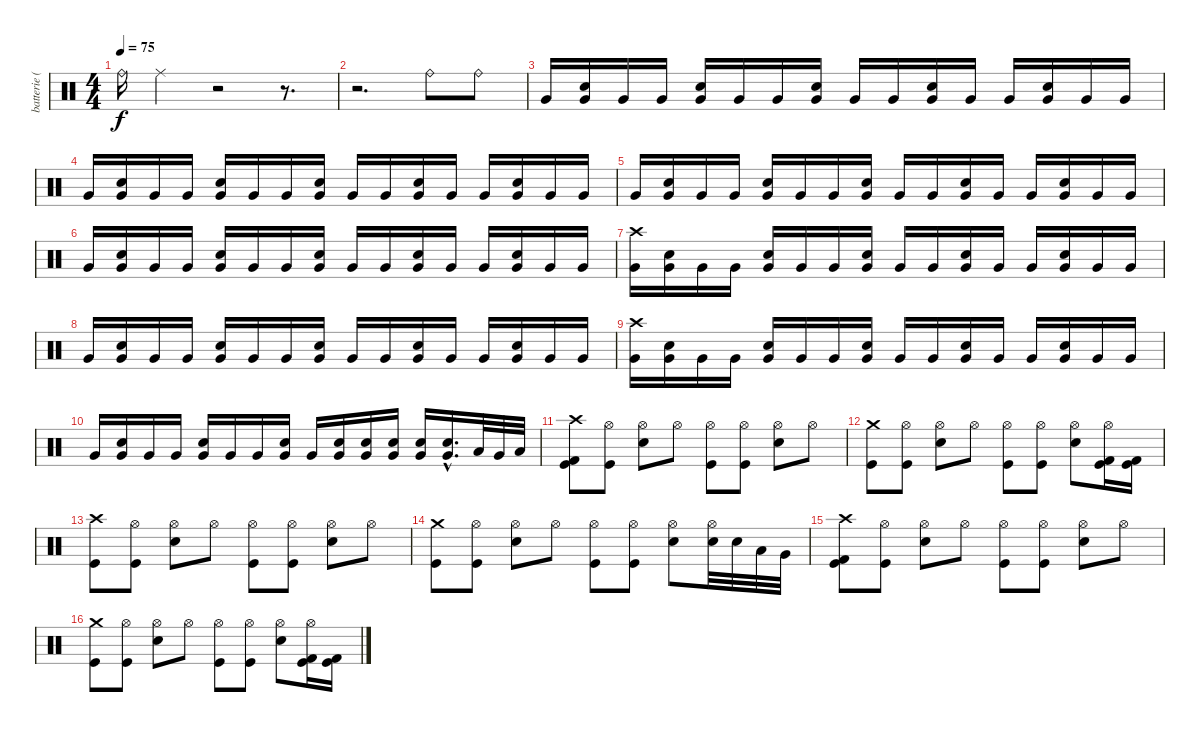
\track ("batterie ( fabien )" "batterie (") {instrument percussion}
\staff {score}
\articulation defaults
\ts (4 4)
\tempo 75
\clef neutral
\ks c "Ride (bell)".16{dy f} "Ride (middle)".4
r.2 r.8{d} |
r.2{d} "Ride (bell)".8 "Ride (bell)".8 |
"Very Low Tom (hit)".16 ("Very Low Tom (hit)" "Snare (hit) 2").16 "Very Low Tom (hit)".16 "Very Low Tom (hit)".16 ("Very Low Tom (hit)" "Snare (hit) 2").16 "Very Low Tom (hit)".16 "Very Low Tom (hit)".16 ("Very Low Tom (hit)" "Snare (hit) 2").16 "Very Low Tom (hit)".16 "Very Low Tom (hit)".16 ("Very Low Tom (hit)" "Snare (hit) 2").16 "Very Low Tom (hit)".16 "Very Low Tom (hit)".16 ("Very Low Tom (hit)" "Snare (hit) 2").16 "Very Low Tom (hit)".16 "Very Low Tom (hit)".16 |
"Very Low Tom (hit)".16 ("Very Low Tom (hit)" "Snare (hit) 2").16 "Very Low Tom (hit)".16 "Very Low Tom (hit)".16 ("Very Low Tom (hit)" "Snare (hit) 2").16 "Very Low Tom (hit)".16 "Very Low Tom (hit)".16 ("Very Low Tom (hit)" "Snare (hit) 2").16 "Very Low Tom (hit)".16 "Very Low Tom (hit)".16 ("Very Low Tom (hit)" "Snare (hit) 2").16 "Very Low Tom (hit)".16 "Very Low Tom (hit)".16 ("Very Low Tom (hit)" "Snare (hit) 2").16 "Very Low Tom (hit)".16 "Very Low Tom (hit)".16 |
"Very Low Tom (hit)".16 ("Very Low Tom (hit)" "Snare (hit) 2").16 "Very Low Tom (hit)".16 "Very Low Tom (hit)".16 ("Very Low Tom (hit)" "Snare (hit) 2").16 "Very Low Tom (hit)".16 "Very Low Tom (hit)".16 ("Very Low Tom (hit)" "Snare (hit) 2").16 "Very Low Tom (hit)".16 "Very Low Tom (hit)".16 ("Very Low Tom (hit)" "Snare (hit) 2").16 "Very Low Tom (hit)".16 "Very Low Tom (hit)".16 ("Very Low Tom (hit)" "Snare (hit) 2").16 "Very Low Tom (hit)".16 "Very Low Tom (hit)".16 |
"Very Low Tom (hit)".16 ("Very Low Tom (hit)" "Snare (hit) 2").16 "Very Low Tom (hit)".16 "Very Low Tom (hit)".16 ("Very Low Tom (hit)" "Snare (hit) 2").16 "Very Low Tom (hit)".16 "Very Low Tom (hit)".16 ("Very Low Tom (hit)" "Snare (hit) 2").16 "Very Low Tom (hit)".16 "Very Low Tom (hit)".16 ("Very Low Tom (hit)" "Snare (hit) 2").16 "Very Low Tom (hit)".16 "Very Low Tom (hit)".16 ("Very Low Tom (hit)" "Snare (hit) 2").16 "Very Low Tom (hit)".16 "Very Low Tom (hit)".16 |
("Crash high (hit)" "Very Low Tom (hit)").16 ("Very Low Tom (hit)" "Snare (hit) 2").16 "Very Low Tom (hit)".16 "Very Low Tom (hit)".16 ("Very Low Tom (hit)" "Snare (hit) 2").16 "Very Low Tom (hit)".16 "Very Low Tom (hit)".16 ("Very Low Tom (hit)" "Snare (hit) 2").16 "Very Low Tom (hit)".16 "Very Low Tom (hit)".16 ("Very Low Tom (hit)" "Snare (hit) 2").16 "Very Low Tom (hit)".16 "Very Low Tom (hit)".16 ("Very Low Tom (hit)" "Snare (hit) 2").16 "Very Low Tom (hit)".16 "Very Low Tom (hit)".16 |
"Very Low Tom (hit)".16 ("Very Low Tom (hit)" "Snare (hit) 2").16 "Very Low Tom (hit)".16 "Very Low Tom (hit)".16 ("Very Low Tom (hit)" "Snare (hit) 2").16 "Very Low Tom (hit)".16 "Very Low Tom (hit)".16 ("Very Low Tom (hit)" "Snare (hit) 2").16 "Very Low Tom (hit)".16 "Very Low Tom (hit)".16 ("Very Low Tom (hit)" "Snare (hit) 2").16 "Very Low Tom (hit)".16 "Very Low Tom (hit)".16 ("Very Low Tom (hit)" "Snare (hit) 2").16 "Very Low Tom (hit)".16 "Very Low Tom (hit)".16 |
("Crash high (hit)" "Very Low Tom (hit)").16 ("Very Low Tom (hit)" "Snare (hit) 2").16 "Very Low Tom (hit)".16 "Very Low Tom (hit)".16 ("Very Low Tom (hit)" "Snare (hit) 2").16 "Very Low Tom (hit)".16 "Very Low Tom (hit)".16 ("Very Low Tom (hit)" "Snare (hit) 2").16 "Very Low Tom (hit)".16 "Very Low Tom (hit)".16 ("Very Low Tom (hit)" "Snare (hit) 2").16 "Very Low Tom (hit)".16 "Very Low Tom (hit)".16 ("Very Low Tom (hit)" "Snare (hit) 2").16 "Very Low Tom (hit)".16 "Very Low Tom (hit)".16 |
"Very Low Tom (hit)".16 ("Very Low Tom (hit)" "Snare (hit) 2").16 "Very Low Tom (hit)".16 "Very Low Tom (hit)".16 ("Very Low Tom (hit)" "Snare (hit) 2").16 "Very Low Tom (hit)".16 "Very Low Tom (hit)".16 ("Very Low Tom (hit)" "Snare (hit) 2").16 "Very Low Tom (hit)".16 ("Very Low Tom (hit)" "Snare (hit) 2").16 ("Very Low Tom (hit)" "Snare (hit) 2").16 ("Very Low Tom (hit)" "Snare (hit) 2").16 ("Very Low Tom (hit)" "Snare (hit) 2").16 ("Very Low Tom (hit)"{hac} "Snare (hit) 2"{hac}).16{d} "Low Tom (hit)".32 "Very Low Tom (hit)".32 "Low Floor Tom (hit)".32 |
("Crash high (hit)" "Kick (hit) 2" "Kick (hit)").8 ("Hi-Hat (open)" "Kick (hit)").8 ("Hi-Hat (open)" "Snare (hit) 2").8 "Hi-Hat (open)".8 ("Hi-Hat (open)" "Kick (hit)").8 ("Hi-Hat (open)" "Kick (hit)").8 ("Hi-Hat (open)" "Snare (hit) 2").8 "Hi-Hat (open)".8 |
("Crash medium (hit)" "Kick (hit)").8 ("Hi-Hat (open)" "Kick (hit)").8 ("Hi-Hat (open)" "Snare (hit) 2").8 "Hi-Hat (open)".8 ("Hi-Hat (open)" "Kick (hit)").8 ("Hi-Hat (open)" "Kick (hit)").8 ("Hi-Hat (open)" "Snare (hit) 2").8 ("Hi-Hat (open)" "Kick (hit) 2" "Kick (hit)").16 ("Kick (hit) 2" "Kick (hit)").16 |
("Crash high (hit)" "Kick (hit)").8 ("Hi-Hat (open)" "Kick (hit)").8 ("Hi-Hat (open)" "Snare (hit) 2").8 "Hi-Hat (open)".8 ("Hi-Hat (open)" "Kick (hit)").8 ("Hi-Hat (open)" "Kick (hit)").8 ("Hi-Hat (open)" "Snare (hit) 2").8 "Hi-Hat (open)".8 |
("Crash medium (hit)" "Kick (hit)").8 ("Hi-Hat (open)" "Kick (hit)").8 ("Hi-Hat (open)" "Snare (hit) 2").8 "Hi-Hat (open)".8 ("Hi-Hat (open)" "Kick (hit)").8 ("Hi-Hat (open)" "Kick (hit)").8 ("Hi-Hat (open)" "Snare (hit) 2").8 ("Hi-Hat (open)" "Snare (hit) 2").32 "Snare (hit) 2".32 "Low Tom (hit)".32 "Very Low Tom (hit)".32 |
("Crash high (hit)" "Kick (hit) 2" "Kick (hit)").8 ("Hi-Hat (open)" "Kick (hit)").8 ("Hi-Hat (open)" "Snare (hit) 2").8 "Hi-Hat (open)".8 ("Hi-Hat (open)" "Kick (hit)").8 ("Hi-Hat (open)" "Kick (hit)").8 ("Hi-Hat (open)" "Snare (hit) 2").8 "Hi-Hat (open)".8 |
("Crash medium (hit)" "Kick (hit)").8 ("Hi-Hat (open)" "Kick (hit)").8 ("Hi-Hat (open)" "Snare (hit) 2").8 "Hi-Hat (open)".8 ("Hi-Hat (open)" "Kick (hit)").8 ("Hi-Hat (open)" "Kick (hit)").8 ("Hi-Hat (open)" "Snare (hit) 2").8 ("Hi-Hat (open)" "Kick (hit) 2" "Kick (hit)").16 ("Kick (hit) 2" "Kick (hit)").16
